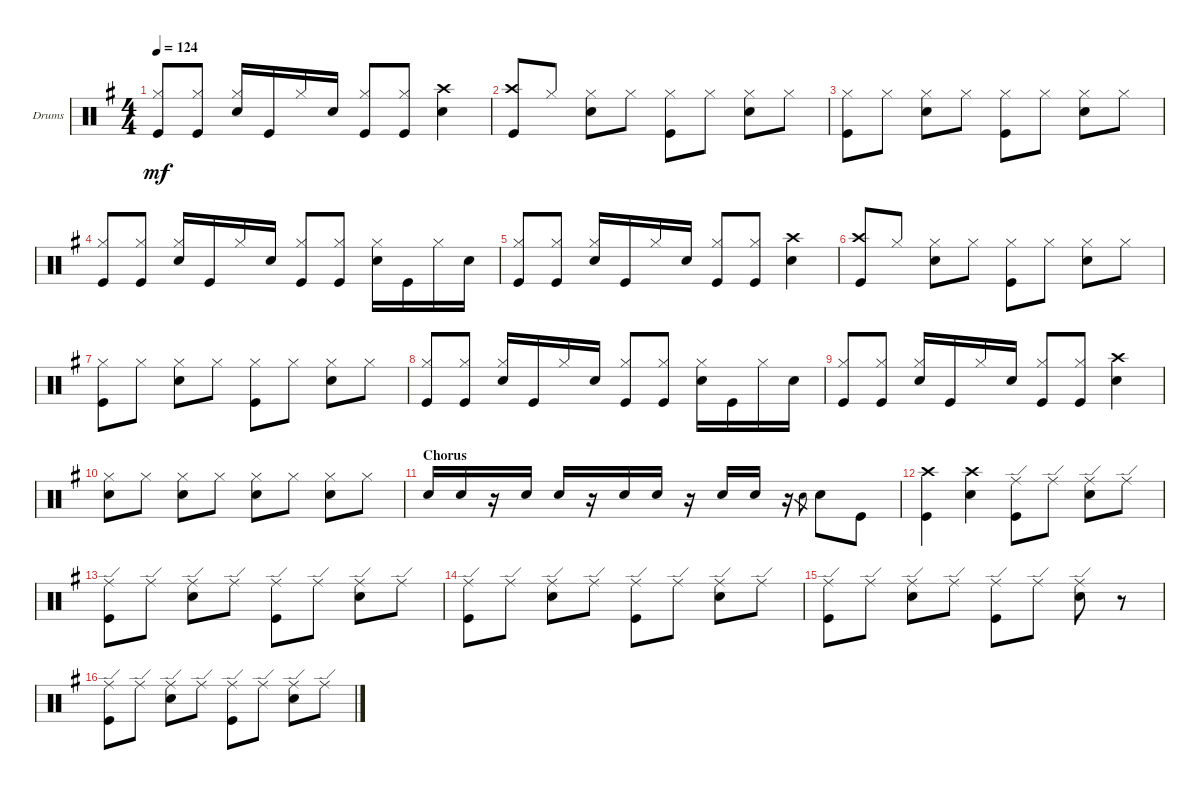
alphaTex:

\defaultSystemsLayout 4
\bracketExtendMode groupsimilarinstruments
\firstSystemTrackNameOrientation horizontal
\otherSystemsTrackNameOrientation horizontal
\track ("PETER CRISS" "Drums") {instrument percussion}
\staff {score}
\articulation defaults
\ts (4 4)
\tempo 124
\clef neutral
\scale
0.333333
\ks g
("Hi-Hat (closed)" "Kick (hit)").8{dy mf beam invert} ("Kick (hit)" "Hi-Hat (closed)").8 ("Snare (hit) 2" "Hi-Hat (closed)").16 "Kick (hit)".16 "Hi-Hat (closed)".16 "Snare (hit) 2".16 ("Hi-Hat (closed)" "Kick (hit)").8{beam invert} ("Kick (hit)" "Hi-Hat (closed)").8 ("Snare (hit) 2" "Crash high (hit)").4 |
\scale
0.333333 ("Crash high (hit)" "Kick (hit)").8{beam invert} "Hi-Hat (closed)".8 ("Hi-Hat (closed)" "Snare (hit) 2").8 "Hi-Hat (closed)".8 ("Kick (hit)" "Hi-Hat (closed)").8 "Hi-Hat (closed)".8 ("Hi-Hat (closed)" "Snare (hit) 2").8 "Hi-Hat (closed)".8 |
\scale
0.333333 ("Kick (hit)" "Hi-Hat (closed)").8 "Hi-Hat (closed)".8 ("Hi-Hat (closed)" "Snare (hit) 2").8 "Hi-Hat (closed)".8 ("Kick (hit)" "Hi-Hat (closed)").8 "Hi-Hat (closed)".8 ("Hi-Hat (closed)" "Snare (hit) 2").8 "Hi-Hat (closed)".8 |
\scale
0.333333 ("Hi-Hat (closed)" "Kick (hit)").8{beam invert} ("Kick (hit)" "Hi-Hat (closed)").8 ("Snare (hit) 2" "Hi-Hat (closed)").16 "Kick (hit)".16 "Hi-Hat (closed)".16 "Snare (hit) 2".16 ("Hi-Hat (closed)" "Kick (hit)").8{beam invert} ("Kick (hit)" "Hi-Hat (closed)").8 ("Snare (hit) 2" "Hi-Hat (closed)").16 "Kick (hit)".16 "Hi-Hat (closed)".16 "Snare (hit) 2".16 |
\scale
0.333333 ("Hi-Hat (closed)" "Kick (hit)").8{beam invert} ("Kick (hit)" "Hi-Hat (closed)").8 ("Snare (hit) 2" "Hi-Hat (closed)").16 "Kick (hit)".16 "Hi-Hat (closed)".16 "Snare (hit) 2".16 ("Hi-Hat (closed)" "Kick (hit)").8{beam invert} ("Kick (hit)" "Hi-Hat (closed)").8 ("Crash high (hit)" "Snare (hit) 2").4 |
\scale
0.333333 ("Crash high (hit)" "Kick (hit)").8{beam invert} "Hi-Hat (closed)".8 ("Hi-Hat (closed)" "Snare (hit) 2").8 "Hi-Hat (closed)".8 ("Kick (hit)" "Hi-Hat (closed)").8 "Hi-Hat (closed)".8 ("Hi-Hat (closed)" "Snare (hit) 2").8 "Hi-Hat (closed)".8 |
\scale
0.333333 ("Kick (hit)" "Hi-Hat (closed)").8 "Hi-Hat (closed)".8 ("Hi-Hat (closed)" "Snare (hit) 2").8 "Hi-Hat (closed)".8 ("Kick (hit)" "Hi-Hat (closed)").8 "Hi-Hat (closed)".8 ("Hi-Hat (closed)" "Snare (hit) 2").8 "Hi-Hat (closed)".8 |
\scale
0.333333 ("Hi-Hat (closed)" "Kick (hit)").8{beam invert} ("Kick (hit)" "Hi-Hat (closed)").8 ("Snare (hit) 2" "Hi-Hat (closed)").16 "Kick (hit)".16 "Hi-Hat (closed)".16 "Snare (hit) 2".16 ("Hi-Hat (closed)" "Kick (hit)").8{beam invert} ("Kick (hit)" "Hi-Hat (closed)").8 ("Snare (hit) 2" "Hi-Hat (closed)").16 "Kick (hit)".16 "Hi-Hat (closed)".16 "Snare (hit) 2".16 |
\scale
0.333333 ("Hi-Hat (closed)" "Kick (hit)").8{beam invert} ("Kick (hit)" "Hi-Hat (closed)").8 ("Snare (hit) 2" "Hi-Hat (closed)").16 "Kick (hit)".16 "Hi-Hat (closed)".16 "Snare (hit) 2".16 ("Hi-Hat (closed)" "Kick (hit)").8{beam invert} ("Kick (hit)" "Hi-Hat (closed)").8 ("Crash high (hit)" "Snare (hit) 2").4 |
\scale
0.333333 ("Hi-Hat (closed)" "Snare (hit) 2").8 "Hi-Hat (closed)".8 ("Hi-Hat (closed)" "Snare (hit) 2").8 "Hi-Hat (closed)".8 ("Hi-Hat (closed)" "Snare (hit) 2").8 "Hi-Hat (closed)".8 ("Hi-Hat (closed)" "Snare (hit) 2").8 "Hi-Hat (closed)".8 |
\section ("" "Chorus")
\scale
0.333333 "Snare (hit) 2".16{beam invert} "Snare (hit) 2".16 r.16 "Snare (hit) 2".16 "Snare (hit) 2".16{beam invert} r.16 "Snare (hit) 2".16 "Snare (hit) 2".16 r.16 "Snare (hit) 2".16 "Snare (hit) 2".16 r.16 "Snare (hit) 2".8{gr beam invert} "Snare (hit) 2".8{beam invert} "Kick (hit)".8 |
\scale
0.333333 ("Crash high (hit)" "Kick (hit)").4 ("Crash high (hit)" "Snare (hit) 2").4 ("Ride (edge)" "Kick (hit)").8 "Ride (edge)".8 ("Ride (edge)" "Snare (hit) 2").8 "Ride (edge)".8 |
\scale
0.333333 ("Ride (edge)" "Kick (hit)").8 "Ride (edge)".8 ("Ride (edge)" "Snare (hit) 2").8 "Ride (edge)".8 ("Ride (edge)" "Kick (hit)").8 "Ride (edge)".8 ("Ride (edge)" "Snare (hit) 2").8 "Ride (edge)".8 |
\scale
0.333333 ("Ride (edge)" "Kick (hit)").8 "Ride (edge)".8 ("Ride (edge)" "Snare (hit) 2").8 "Ride (edge)".8 ("Ride (edge)" "Kick (hit)").8 "Ride (edge)".8 ("Ride (edge)" "Snare (hit) 2").8 "Ride (edge)".8 |
\scale
0.333333 ("Ride (edge)" "Kick (hit)").8 "Ride (edge)".8 ("Ride (edge)" "Snare (hit) 2").8 "Ride (edge)".8 ("Ride (edge)" "Kick (hit)").8 "Ride (edge)".8 ("Ride (edge)" "Snare (hit) 2").8 r.8 |
\scale
0.333333 ("Ride (edge)" "Kick (hit)").8 "Ride (edge)".8 ("Ride (edge)" "Snare (hit) 2").8 "Ride (edge)".8 ("Ride (edge)" "Kick (hit)").8 "Ride (edge)".8 ("Ride (edge)" "Snare (hit) 2").8 "Ride (edge)".8
